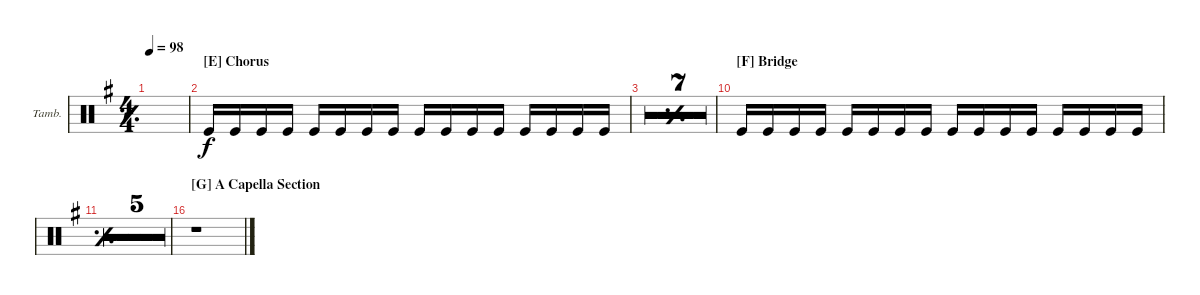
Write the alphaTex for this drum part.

\defaultSystemsLayout 4
\bracketExtendMode groupsimilarinstruments
\firstSystemTrackNameOrientation horizontal
\otherSystemsTrackNameOrientation horizontal
\track ("Tambourine" "Tamb.") {multiBarRest instrument percussion}
\staff {score}
\articulation defaults
\ts (4 4)
\tempo 98
\clef neutral
\simile simple
\ks g
|
\section ("E" "Chorus")
\simile none "Kick (hit)".16 "Kick (hit)".16 "Kick (hit)".16 "Kick (hit)".16 "Kick (hit)".16 "Kick (hit)".16 "Kick (hit)".16 "Kick (hit)".16 "Kick (hit)".16 "Kick (hit)".16 "Kick (hit)".16 "Kick (hit)".16 "Kick (hit)".16 "Kick (hit)".16 "Kick (hit)".16 "Kick (hit)".16
|
\simile simple
|
|
|
|
|
|
|
\section ("F" "Bridge")
\simile none "Kick (hit)".16 "Kick (hit)".16 "Kick (hit)".16 "Kick (hit)".16 "Kick (hit)".16 "Kick (hit)".16 "Kick (hit)".16 "Kick (hit)".16 "Kick (hit)".16 "Kick (hit)".16 "Kick (hit)".16 "Kick (hit)".16 "Kick (hit)".16 "Kick (hit)".16 "Kick (hit)".16 "Kick (hit)".16
|
\simile simple
|
|
|
|
|
\section ("G" "A Capella Section")
r.1
